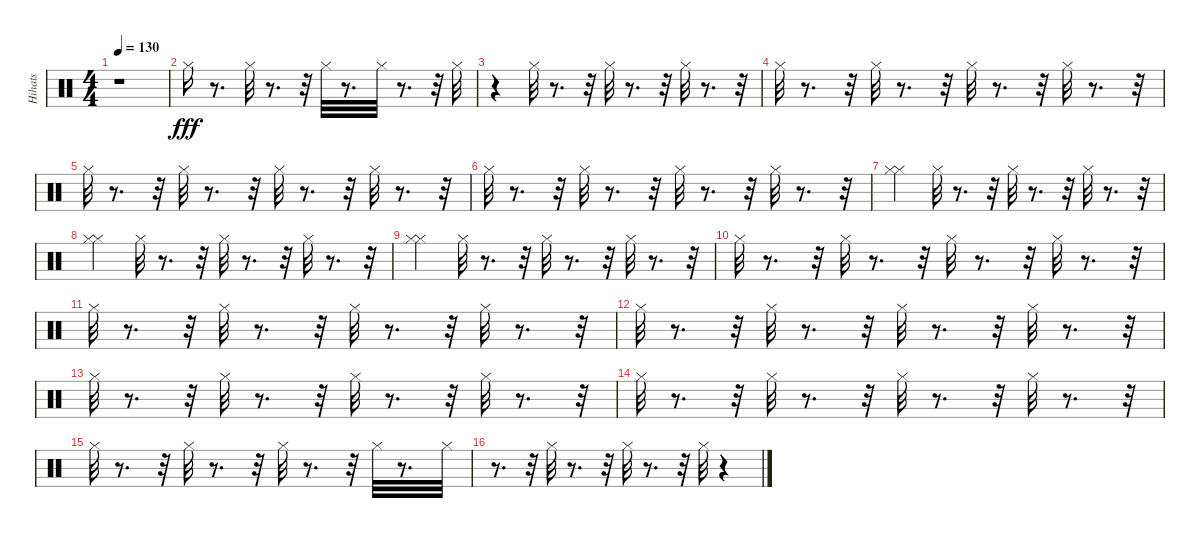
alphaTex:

\track ("Hihats" "Hihats") {instrument percussion}
\staff {score}
\articulation defaults
\ts (4 4)
\tempo 130
\clef neutral
\ks c
r.1{dy fff} |
"Hi-Hat (closed)".16 r.8{d} "Hi-Hat (closed)".32 r.8{d} r.32 "Hi-Hat (closed)".32 r.8{d} "Hi-Hat (closed)".32 r.8{d} r.32 "Hi-Hat (closed)".32 |
r.4 "Hi-Hat (closed)".32 r.8{d} r.32 "Hi-Hat (closed)".32 r.8{d} r.32 "Hi-Hat (closed)".32 r.8{d} r.32 |
"Hi-Hat (closed)".32 r.8{d} r.32 "Hi-Hat (closed)".32 r.8{d} r.32 "Hi-Hat (closed)".32 r.8{d} r.32 "Hi-Hat (closed)".32 r.8{d} r.32 |
"Hi-Hat (closed)".32 r.8{d} r.32 "Hi-Hat (closed)".32 r.8{d} r.32 "Hi-Hat (closed)".32 r.8{d} r.32 "Hi-Hat (closed)".32 r.8{d} r.32 |
"Hi-Hat (closed)".32 r.8{d} r.32 "Hi-Hat (closed)".32 r.8{d} r.32 "Hi-Hat (closed)".32 r.8{d} r.32 "Hi-Hat (closed)".32 r.8{d} r.32 |
("Hi-Hat (closed)" "Hi-Hat (closed)").4 "Hi-Hat (closed)".32 r.8{d} r.32 "Hi-Hat (closed)".32 r.8{d} r.32 "Hi-Hat (closed)".32 r.8{d} r.32 |
("Hi-Hat (closed)" "Hi-Hat (closed)").4 "Hi-Hat (closed)".32 r.8{d} r.32 "Hi-Hat (closed)".32 r.8{d} r.32 "Hi-Hat (closed)".32 r.8{d} r.32 |
("Hi-Hat (closed)" "Hi-Hat (closed)").4 "Hi-Hat (closed)".32 r.8{d} r.32 "Hi-Hat (closed)".32 r.8{d} r.32 "Hi-Hat (closed)".32 r.8{d} r.32 |
"Hi-Hat (closed)".32 r.8{d} r.32 "Hi-Hat (closed)".32 r.8{d} r.32 "Hi-Hat (closed)".32 r.8{d} r.32 "Hi-Hat (closed)".32 r.8{d} r.32 |
"Hi-Hat (closed)".32 r.8{d} r.32 "Hi-Hat (closed)".32 r.8{d} r.32 "Hi-Hat (closed)".32 r.8{d} r.32 "Hi-Hat (closed)".32 r.8{d} r.32 |
"Hi-Hat (closed)".32 r.8{d} r.32 "Hi-Hat (closed)".32 r.8{d} r.32 "Hi-Hat (closed)".32 r.8{d} r.32 "Hi-Hat (closed)".32 r.8{d} r.32 |
"Hi-Hat (closed)".32 r.8{d} r.32 "Hi-Hat (closed)".32 r.8{d} r.32 "Hi-Hat (closed)".32 r.8{d} r.32 "Hi-Hat (closed)".32 r.8{d} r.32 |
"Hi-Hat (closed)".32 r.8{d} r.32 "Hi-Hat (closed)".32 r.8{d} r.32 "Hi-Hat (closed)".32 r.8{d} r.32 "Hi-Hat (closed)".32 r.8{d} r.32 |
"Hi-Hat (closed)".32 r.8{d} r.32 "Hi-Hat (closed)".32 r.8{d} r.32 "Hi-Hat (closed)".32 r.8{d} r.32 "Hi-Hat (closed)".32 r.8{d} "Hi-Hat (closed)".32 |
r.8{d} r.32 "Hi-Hat (closed)".32 r.8{d} r.32 "Hi-Hat (closed)".32 r.8{d} r.32 "Hi-Hat (closed)".32 r.4
